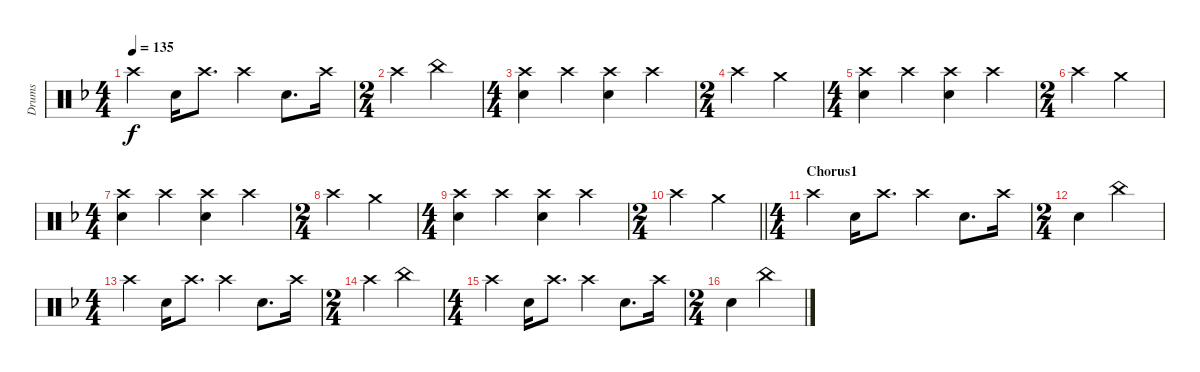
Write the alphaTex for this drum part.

\track ("Drums" "Drums") {instrument percussion}
\staff {score}
\articulation defaults
\ts (4 4)
\tempo 135
\clef neutral
\ks dminor "Crash high (hit)".4{dy f} "Snare (hit) 2".16 "Crash high (hit)".8{d} "Crash high (hit)".4 "Snare (hit) 2".8{d} "Crash high (hit)".16
|
\ts (2 4)
"Crash high (hit)".4 "China (hit)".4 |
\ts (4 4)
("Crash high (hit)" "Snare (hit) 2").4 "Crash high (hit)".4 ("Crash high (hit)" "Snare (hit) 2").4 "Crash high (hit)".4 |
\ts (2 4)
"Crash high (hit)".4 "Crash medium (hit)".4 |
\ts (4 4)
("Crash high (hit)" "Snare (hit) 2").4 "Crash high (hit)".4 ("Crash high (hit)" "Snare (hit) 2").4 "Crash high (hit)".4 |
\ts (2 4)
"Crash high (hit)".4 "Crash medium (hit)".4 |
\ts (4 4)
("Crash high (hit)" "Snare (hit) 2").4 "Crash high (hit)".4 ("Crash high (hit)" "Snare (hit) 2").4 "Crash high (hit)".4 |
\ts (2 4)
"Crash high (hit)".4 "Crash medium (hit)".4 |
\ts (4 4)
("Crash high (hit)" "Snare (hit) 2").4 "Crash high (hit)".4 ("Crash high (hit)" "Snare (hit) 2").4 "Crash high (hit)".4 |
\ts (2 4)
\barLineRight lightlight "Crash high (hit)".4 "Crash medium (hit)".4
|
\ts (4 4)
\section ("" "Chorus1")
"Crash high (hit)".4 "Snare (hit) 2".16 "Crash high (hit)".8{d} "Crash high (hit)".4 "Snare (hit) 2".8{d} "Crash high (hit)".16 |
\ts (2 4)
"Snare (hit) 2".4 "China (hit)".4 |
\ts (4 4)
"Crash high (hit)".4 "Snare (hit) 2".16 "Crash high (hit)".8{d} "Crash high (hit)".4 "Snare (hit) 2".8{d} "Crash high (hit)".16 |
\ts (2 4)
"Crash high (hit)".4 "China (hit)".4 |
\ts (4 4)
"Crash high (hit)".4 "Snare (hit) 2".16 "Crash high (hit)".8{d} "Crash high (hit)".4 "Snare (hit) 2".8{d} "Crash high (hit)".16 |
\ts (2 4)
"Snare (hit) 2".4 "China (hit)".4
